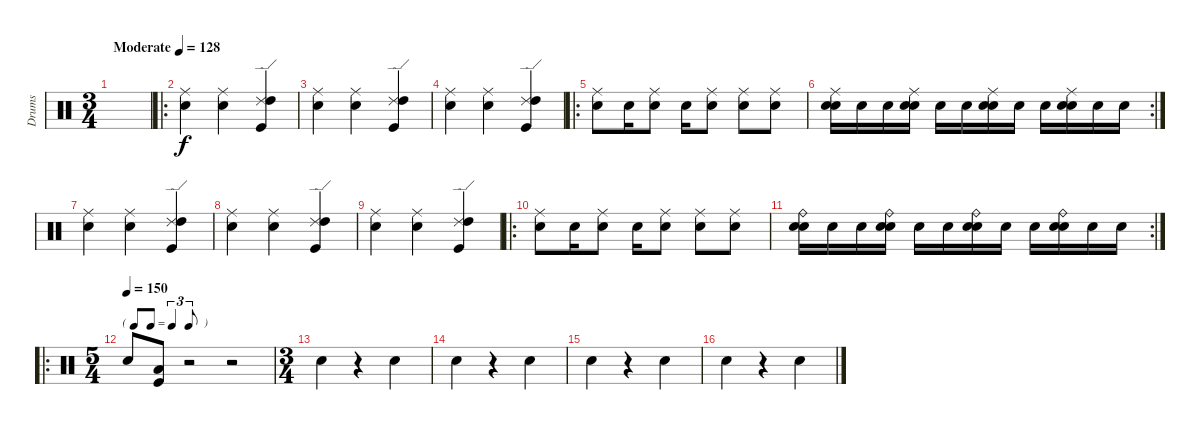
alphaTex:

\track ("Drums" "Drums") {instrument percussion}
\staff {score}
\articulation defaults
\ts (3 4)
\tempo (128 "Moderate")
\clef neutral
\ks c
|
\ro
("Ride (middle)" "Snare (hit) 2").4 ("Ride (middle)" "Snare (hit) 2").4 ("Ride (edge) 2" "High Tom (hit)" "Kick (hit)").4 |
("Ride (middle)" "Snare (hit) 2").4 ("Ride (middle)" "Snare (hit) 2").4 ("Ride (edge) 2" "High Tom (hit)" "Kick (hit)").4 |
("Ride (middle)" "Snare (hit) 2").4 ("Ride (middle)" "Snare (hit) 2").4 ("Ride (edge) 2" "High Tom (hit)" "Kick (hit)").4 |
\ro
("Ride (middle)" "Snare (hit) 2").8 "Snare (hit) 2".16 ("Ride (middle)" "Snare (hit) 2").8 "Snare (hit) 2".16 ("Ride (middle)" "Snare (hit) 2").8 ("Ride (middle)" "Snare (hit) 2").8 ("Ride (middle)" "Snare (hit) 2").8 |
\rc 2
("Ride (middle)" "Snare (hit) 2" "Snare (hit) 2").16 "Snare (hit) 2".16 "Snare (hit) 2".16 ("Ride (middle)" "Snare (hit) 2" "Snare (hit) 2").16 "Snare (hit) 2".16 "Snare (hit) 2".16 ("Ride (middle)" "Snare (hit) 2" "Snare (hit) 2").16 "Snare (hit) 2".16 "Snare (hit) 2".16 ("Ride (middle)" "Snare (hit) 2" "Snare (hit) 2").16 "Snare (hit) 2".16 "Snare (hit) 2".16 |
("Ride (middle)" "Snare (hit) 2").4 ("Ride (middle)" "Snare (hit) 2").4 ("Ride (edge) 2" "High Tom (hit)" "Kick (hit)").4 |
("Ride (middle)" "Snare (hit) 2").4 ("Ride (middle)" "Snare (hit) 2").4 ("Ride (edge) 2" "High Tom (hit)" "Kick (hit)").4 |
("Ride (middle)" "Snare (hit) 2").4 ("Ride (middle)" "Snare (hit) 2").4 ("Ride (edge) 2" "High Tom (hit)" "Kick (hit)").4 |
\ro
("Ride (middle)" "Snare (hit) 2").8 "Snare (hit) 2".16 ("Ride (middle)" "Snare (hit) 2").8 "Snare (hit) 2".16 ("Ride (middle)" "Snare (hit) 2").8 ("Ride (middle)" "Snare (hit) 2").8 ("Ride (middle)" "Snare (hit) 2").8 |
\rc 2
("Ride (bell)" "Snare (hit) 2" "Snare (hit) 2").16 "Snare (hit) 2".16 "Snare (hit) 2".16 ("Ride (bell)" "Snare (hit) 2" "Snare (hit) 2").16 "Snare (hit) 2".16 "Snare (hit) 2".16 ("Ride (bell)" "Snare (hit) 2" "Snare (hit) 2").16 "Snare (hit) 2".16 "Snare (hit) 2".16 ("Ride (bell)" "Snare (hit) 2" "Snare (hit) 2").16 "Snare (hit) 2".16 "Snare (hit) 2".16 |
\ro
\ts (5 4)
\tf triplet8th
\tempo (150)
"Snare (hit) 2".8{dy f} ("Low Floor Tom (hit)" "Kick (hit)").8 r.2 r.2 |
\ts (3 4)
"Snare (hit) 2".4 r.4 "Snare (hit) 2".4 |
"Snare (hit) 2".4 r.4 "Snare (hit) 2".4 |
"Snare (hit) 2".4 r.4 "Snare (hit) 2".4 |
"Snare (hit) 2".4 r.4 "Snare (hit) 2".4
